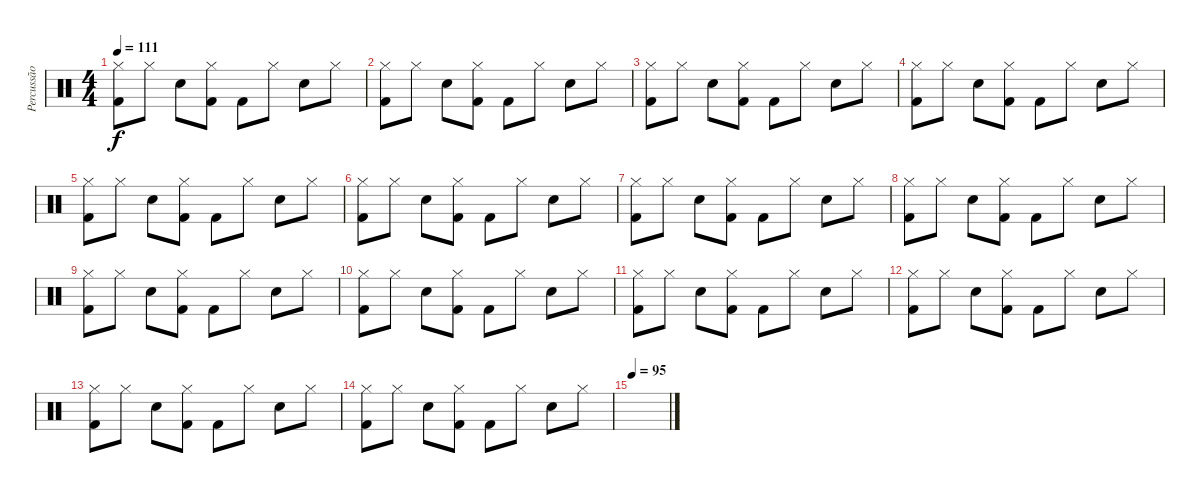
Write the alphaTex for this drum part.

\track ("Percussão" "Percussão") {instrument percussion}
\staff {score}
\articulation defaults
\ts (4 4)
\tempo 111
\clef neutral
\ks c
("Hi-Hat (closed)" "Kick (hit) 2").8{dy f} "Hi-Hat (closed)".8 "Electric Snare (hit)".8 ("Hi-Hat (closed)" "Kick (hit) 2").8 "Kick (hit) 2".8 "Hi-Hat (closed)".8 "Electric Snare (hit)".8 "Hi-Hat (closed)".8 |
("Hi-Hat (closed)" "Kick (hit) 2").8 "Hi-Hat (closed)".8 "Electric Snare (hit)".8 ("Hi-Hat (closed)" "Kick (hit) 2").8 "Kick (hit) 2".8 "Hi-Hat (closed)".8 "Electric Snare (hit)".8 "Hi-Hat (closed)".8 |
("Hi-Hat (closed)" "Kick (hit) 2").8 "Hi-Hat (closed)".8 "Electric Snare (hit)".8 ("Hi-Hat (closed)" "Kick (hit) 2").8 "Kick (hit) 2".8 "Hi-Hat (closed)".8 "Electric Snare (hit)".8 "Hi-Hat (closed)".8 |
("Hi-Hat (closed)" "Kick (hit) 2").8 "Hi-Hat (closed)".8 "Electric Snare (hit)".8 ("Hi-Hat (closed)" "Kick (hit) 2").8 "Kick (hit) 2".8 "Hi-Hat (closed)".8 "Electric Snare (hit)".8 "Hi-Hat (closed)".8 |
("Hi-Hat (closed)" "Kick (hit) 2").8 "Hi-Hat (closed)".8 "Electric Snare (hit)".8 ("Hi-Hat (closed)" "Kick (hit) 2").8 "Kick (hit) 2".8 "Hi-Hat (closed)".8 "Electric Snare (hit)".8 "Hi-Hat (closed)".8 |
("Hi-Hat (closed)" "Kick (hit) 2").8 "Hi-Hat (closed)".8 "Electric Snare (hit)".8 ("Hi-Hat (closed)" "Kick (hit) 2").8 "Kick (hit) 2".8 "Hi-Hat (closed)".8 "Electric Snare (hit)".8 "Hi-Hat (closed)".8 |
("Hi-Hat (closed)" "Kick (hit) 2").8 "Hi-Hat (closed)".8 "Electric Snare (hit)".8 ("Hi-Hat (closed)" "Kick (hit) 2").8 "Kick (hit) 2".8 "Hi-Hat (closed)".8 "Electric Snare (hit)".8 "Hi-Hat (closed)".8 |
("Hi-Hat (closed)" "Kick (hit) 2").8 "Hi-Hat (closed)".8 "Electric Snare (hit)".8 ("Hi-Hat (closed)" "Kick (hit) 2").8 "Kick (hit) 2".8 "Hi-Hat (closed)".8 "Electric Snare (hit)".8 "Hi-Hat (closed)".8 |
("Hi-Hat (closed)" "Kick (hit) 2").8 "Hi-Hat (closed)".8 "Electric Snare (hit)".8 ("Hi-Hat (closed)" "Kick (hit) 2").8 "Kick (hit) 2".8 "Hi-Hat (closed)".8 "Electric Snare (hit)".8 "Hi-Hat (closed)".8 |
("Hi-Hat (closed)" "Kick (hit) 2").8 "Hi-Hat (closed)".8 "Electric Snare (hit)".8 ("Hi-Hat (closed)" "Kick (hit) 2").8 "Kick (hit) 2".8 "Hi-Hat (closed)".8 "Electric Snare (hit)".8 "Hi-Hat (closed)".8 |
("Hi-Hat (closed)" "Kick (hit) 2").8 "Hi-Hat (closed)".8 "Electric Snare (hit)".8 ("Hi-Hat (closed)" "Kick (hit) 2").8 "Kick (hit) 2".8 "Hi-Hat (closed)".8 "Electric Snare (hit)".8 "Hi-Hat (closed)".8 |
("Hi-Hat (closed)" "Kick (hit) 2").8 "Hi-Hat (closed)".8 "Electric Snare (hit)".8 ("Hi-Hat (closed)" "Kick (hit) 2").8 "Kick (hit) 2".8 "Hi-Hat (closed)".8 "Electric Snare (hit)".8 "Hi-Hat (closed)".8 |
("Hi-Hat (closed)" "Kick (hit) 2").8 "Hi-Hat (closed)".8 "Electric Snare (hit)".8 ("Hi-Hat (closed)" "Kick (hit) 2").8 "Kick (hit) 2".8 "Hi-Hat (closed)".8 "Electric Snare (hit)".8 "Hi-Hat (closed)".8 |
("Hi-Hat (closed)" "Kick (hit) 2").8 "Hi-Hat (closed)".8 "Electric Snare (hit)".8 ("Hi-Hat (closed)" "Kick (hit) 2").8 "Kick (hit) 2".8 "Hi-Hat (closed)".8 "Electric Snare (hit)".8 "Hi-Hat (closed)".8 |
\tempo 95
